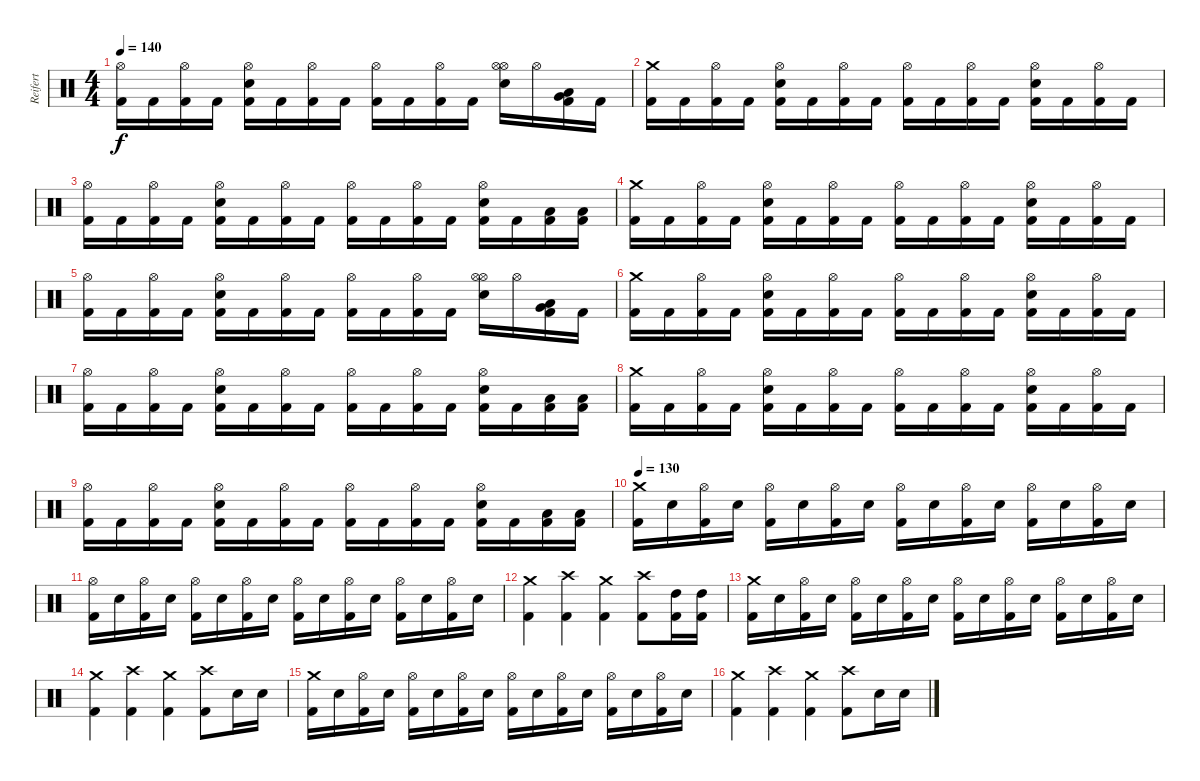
\track ("Reifert" "Reifert") {instrument percussion}
\staff {score}
\articulation defaults
\ts (4 4)
\tempo 140
\clef neutral
\ks c
("Hi-Hat (open)" "Kick (hit) 2").16{dy f} "Kick (hit) 2".16 ("Hi-Hat (open)" "Kick (hit) 2").16 "Kick (hit) 2".16 ("Hi-Hat (open)" "Electric Snare (hit)" "Kick (hit) 2").16 "Kick (hit) 2".16 ("Hi-Hat (open)" "Kick (hit) 2").16 "Kick (hit) 2".16 ("Hi-Hat (open)" "Kick (hit) 2").16 "Kick (hit) 2".16 ("Hi-Hat (open)" "Kick (hit) 2").16 "Kick (hit) 2".16 ("Hi-Hat (open)" "Electric Snare (hit)" "Hi-Hat (open)").16 "Hi-Hat (open)".16 ("Low Tom (hit)" "Very Low Tom (hit)" "Kick (hit) 2").16 "Kick (hit) 2".16 |
("Crash medium (hit)" "Kick (hit) 2").16 "Kick (hit) 2".16 ("Hi-Hat (open)" "Kick (hit) 2").16 "Kick (hit) 2".16 ("Hi-Hat (open)" "Electric Snare (hit)" "Kick (hit) 2").16 "Kick (hit) 2".16 ("Hi-Hat (open)" "Kick (hit) 2").16 "Kick (hit) 2".16 ("Hi-Hat (open)" "Kick (hit) 2").16 "Kick (hit) 2".16 ("Hi-Hat (open)" "Kick (hit) 2").16 "Kick (hit) 2".16 ("Hi-Hat (open)" "Electric Snare (hit)" "Kick (hit) 2").16 "Kick (hit) 2".16 ("Hi-Hat (open)" "Kick (hit) 2").16 "Kick (hit) 2".16 |
("Hi-Hat (open)" "Kick (hit) 2").16 "Kick (hit) 2".16 ("Hi-Hat (open)" "Kick (hit) 2").16 "Kick (hit) 2".16 ("Hi-Hat (open)" "Electric Snare (hit)" "Kick (hit) 2").16 "Kick (hit) 2".16 ("Hi-Hat (open)" "Kick (hit) 2").16 "Kick (hit) 2".16 ("Hi-Hat (open)" "Kick (hit) 2").16 "Kick (hit) 2".16 ("Hi-Hat (open)" "Kick (hit) 2").16 "Kick (hit) 2".16 ("Hi-Hat (open)" "Electric Snare (hit)" "Kick (hit) 2").16 "Kick (hit) 2".16 ("Low Tom (hit)" "Kick (hit) 2").16 ("Low Tom (hit)" "Kick (hit) 2").16 |
("Crash medium (hit)" "Kick (hit) 2").16 "Kick (hit) 2".16 ("Hi-Hat (open)" "Kick (hit) 2").16 "Kick (hit) 2".16 ("Hi-Hat (open)" "Electric Snare (hit)" "Kick (hit) 2").16 "Kick (hit) 2".16 ("Hi-Hat (open)" "Kick (hit) 2").16 "Kick (hit) 2".16 ("Hi-Hat (open)" "Kick (hit) 2").16 "Kick (hit) 2".16 ("Hi-Hat (open)" "Kick (hit) 2").16 "Kick (hit) 2".16 ("Hi-Hat (open)" "Electric Snare (hit)" "Kick (hit) 2").16 "Kick (hit) 2".16 ("Hi-Hat (open)" "Kick (hit) 2").16 "Kick (hit) 2".16 |
("Hi-Hat (open)" "Kick (hit) 2").16 "Kick (hit) 2".16 ("Hi-Hat (open)" "Kick (hit) 2").16 "Kick (hit) 2".16 ("Hi-Hat (open)" "Electric Snare (hit)" "Kick (hit) 2").16 "Kick (hit) 2".16 ("Hi-Hat (open)" "Kick (hit) 2").16 "Kick (hit) 2".16 ("Hi-Hat (open)" "Kick (hit) 2").16 "Kick (hit) 2".16 ("Hi-Hat (open)" "Kick (hit) 2").16 "Kick (hit) 2".16 ("Hi-Hat (open)" "Electric Snare (hit)" "Hi-Hat (open)").16 "Hi-Hat (open)".16 ("Low Tom (hit)" "Very Low Tom (hit)" "Kick (hit) 2").16 "Kick (hit) 2".16 |
("Crash medium (hit)" "Kick (hit) 2").16 "Kick (hit) 2".16 ("Hi-Hat (open)" "Kick (hit) 2").16 "Kick (hit) 2".16 ("Hi-Hat (open)" "Electric Snare (hit)" "Kick (hit) 2").16 "Kick (hit) 2".16 ("Hi-Hat (open)" "Kick (hit) 2").16 "Kick (hit) 2".16 ("Hi-Hat (open)" "Kick (hit) 2").16 "Kick (hit) 2".16 ("Hi-Hat (open)" "Kick (hit) 2").16 "Kick (hit) 2".16 ("Hi-Hat (open)" "Electric Snare (hit)" "Kick (hit) 2").16 "Kick (hit) 2".16 ("Hi-Hat (open)" "Kick (hit) 2").16 "Kick (hit) 2".16 |
("Hi-Hat (open)" "Kick (hit) 2").16 "Kick (hit) 2".16 ("Hi-Hat (open)" "Kick (hit) 2").16 "Kick (hit) 2".16 ("Hi-Hat (open)" "Electric Snare (hit)" "Kick (hit) 2").16 "Kick (hit) 2".16 ("Hi-Hat (open)" "Kick (hit) 2").16 "Kick (hit) 2".16 ("Hi-Hat (open)" "Kick (hit) 2").16 "Kick (hit) 2".16 ("Hi-Hat (open)" "Kick (hit) 2").16 "Kick (hit) 2".16 ("Hi-Hat (open)" "Electric Snare (hit)" "Kick (hit) 2").16 "Kick (hit) 2".16 ("Low Tom (hit)" "Kick (hit) 2").16 ("Low Tom (hit)" "Kick (hit) 2").16 |
("Crash medium (hit)" "Kick (hit) 2").16 "Kick (hit) 2".16 ("Hi-Hat (open)" "Kick (hit) 2").16 "Kick (hit) 2".16 ("Hi-Hat (open)" "Electric Snare (hit)" "Kick (hit) 2").16 "Kick (hit) 2".16 ("Hi-Hat (open)" "Kick (hit) 2").16 "Kick (hit) 2".16 ("Hi-Hat (open)" "Kick (hit) 2").16 "Kick (hit) 2".16 ("Hi-Hat (open)" "Kick (hit) 2").16 "Kick (hit) 2".16 ("Hi-Hat (open)" "Electric Snare (hit)" "Kick (hit) 2").16 "Kick (hit) 2".16 ("Hi-Hat (open)" "Kick (hit) 2").16 "Kick (hit) 2".16 |
("Hi-Hat (open)" "Kick (hit) 2").16 "Kick (hit) 2".16 ("Hi-Hat (open)" "Kick (hit) 2").16 "Kick (hit) 2".16 ("Hi-Hat (open)" "Electric Snare (hit)" "Kick (hit) 2").16 "Kick (hit) 2".16 ("Hi-Hat (open)" "Kick (hit) 2").16 "Kick (hit) 2".16 ("Hi-Hat (open)" "Kick (hit) 2").16 "Kick (hit) 2".16 ("Hi-Hat (open)" "Kick (hit) 2").16 "Kick (hit) 2".16 ("Hi-Hat (open)" "Electric Snare (hit)" "Kick (hit) 2").16 "Kick (hit) 2".16 ("Low Tom (hit)" "Kick (hit) 2").16 ("Low Tom (hit)" "Kick (hit) 2").16 |
\tempo 130
("Crash medium (hit)" "Kick (hit) 2").16 "Electric Snare (hit)".16 ("Hi-Hat (open)" "Kick (hit) 2").16 "Electric Snare (hit)".16 ("Hi-Hat (open)" "Kick (hit) 2").16 "Electric Snare (hit)".16 ("Hi-Hat (open)" "Kick (hit) 2").16 "Electric Snare (hit)".16 ("Hi-Hat (open)" "Kick (hit) 2").16 "Electric Snare (hit)".16 ("Hi-Hat (open)" "Kick (hit) 2").16 "Electric Snare (hit)".16 ("Hi-Hat (open)" "Kick (hit) 2").16 "Electric Snare (hit)".16 ("Hi-Hat (open)" "Kick (hit) 2").16 "Electric Snare (hit)".16 |
("Hi-Hat (open)" "Kick (hit) 2").16 "Electric Snare (hit)".16 ("Hi-Hat (open)" "Kick (hit) 2").16 "Electric Snare (hit)".16 ("Hi-Hat (open)" "Kick (hit) 2").16 "Electric Snare (hit)".16 ("Hi-Hat (open)" "Kick (hit) 2").16 "Electric Snare (hit)".16 ("Hi-Hat (open)" "Kick (hit) 2").16 "Electric Snare (hit)".16 ("Hi-Hat (open)" "Kick (hit) 2").16 "Electric Snare (hit)".16 ("Hi-Hat (open)" "Kick (hit) 2").16 "Electric Snare (hit)".16 ("Hi-Hat (open)" "Kick (hit) 2").16 "Electric Snare (hit)".16 |
("Crash medium (hit)" "Kick (hit) 2").4 ("Crash high (hit)" "Kick (hit) 2").4 ("Crash medium (hit)" "Kick (hit) 2").4 ("Crash high (hit)" "Kick (hit) 2").8 ("High Tom (hit)" "Kick (hit) 2").16 ("High Tom (hit)" "Kick (hit) 2").16 |
("Crash medium (hit)" "Kick (hit) 2").16 "Electric Snare (hit)".16 ("Hi-Hat (open)" "Kick (hit) 2").16 "Electric Snare (hit)".16 ("Hi-Hat (open)" "Kick (hit) 2").16 "Electric Snare (hit)".16 ("Hi-Hat (open)" "Kick (hit) 2").16 "Electric Snare (hit)".16 ("Hi-Hat (open)" "Kick (hit) 2").16 "Electric Snare (hit)".16 ("Hi-Hat (open)" "Kick (hit) 2").16 "Electric Snare (hit)".16 ("Hi-Hat (open)" "Kick (hit) 2").16 "Electric Snare (hit)".16 ("Hi-Hat (open)" "Kick (hit) 2").16 "Electric Snare (hit)".16 |
("Crash medium (hit)" "Kick (hit) 2").4 ("Crash high (hit)" "Kick (hit) 2").4 ("Crash medium (hit)" "Kick (hit) 2").4 ("Crash high (hit)" "Kick (hit) 2").8 "Electric Snare (hit)".16 "Electric Snare (hit)".16 |
("Crash medium (hit)" "Kick (hit) 2").16 "Electric Snare (hit)".16 ("Hi-Hat (open)" "Kick (hit) 2").16 "Electric Snare (hit)".16 ("Hi-Hat (open)" "Kick (hit) 2").16 "Electric Snare (hit)".16 ("Hi-Hat (open)" "Kick (hit) 2").16 "Electric Snare (hit)".16 ("Hi-Hat (open)" "Kick (hit) 2").16 "Electric Snare (hit)".16 ("Hi-Hat (open)" "Kick (hit) 2").16 "Electric Snare (hit)".16 ("Hi-Hat (open)" "Kick (hit) 2").16 "Electric Snare (hit)".16 ("Hi-Hat (open)" "Kick (hit) 2").16 "Electric Snare (hit)".16 |
("Crash medium (hit)" "Kick (hit) 2").4 ("Crash high (hit)" "Kick (hit) 2").4 ("Crash medium (hit)" "Kick (hit) 2").4 ("Crash high (hit)" "Kick (hit) 2").8 "Electric Snare (hit)".16 "Electric Snare (hit)".16
